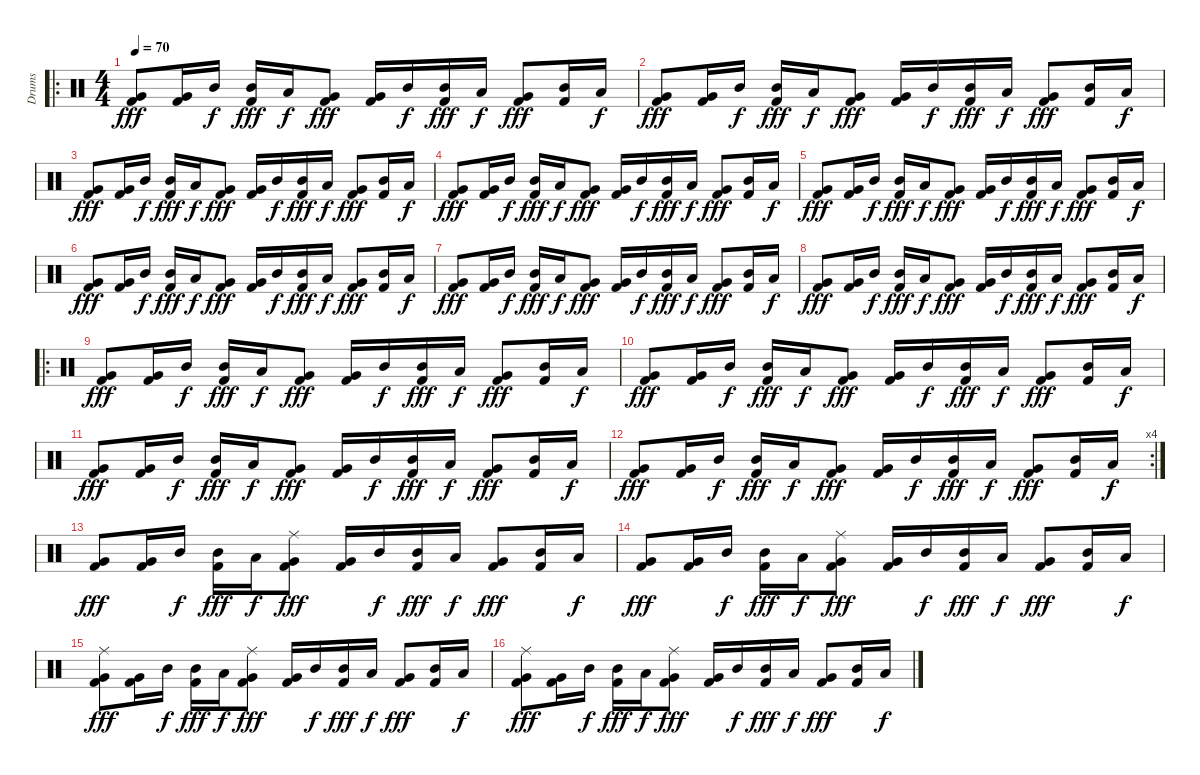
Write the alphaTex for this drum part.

\track ("Drums" "Drums") {instrument percussion}
\staff {score}
\articulation defaults
\ro
\ts (4 4)
\tempo 70
\clef neutral
\ks c
("Kick (hit) 2" "Very Low Tom (hit)").8{dy fff volume 0} ("Kick (hit) 2" "Very Low Tom (hit)").16{volume 7} "Mid Tom (hit)".16{dy f} ("Kick (hit) 2" "Mid Tom (hit)").16{dy fff} "Low Tom (hit)".16{dy f} ("Kick (hit) 2" "Very Low Tom (hit)").8{dy fff} ("Kick (hit) 2" "Very Low Tom (hit)").16 "Mid Tom (hit)".16{dy f} ("Kick (hit) 2" "Mid Tom (hit)").16{dy fff} "Low Tom (hit)".16{dy f} ("Kick (hit) 2" "Very Low Tom (hit)").8{dy fff} ("Kick (hit) 2" "Mid Tom (hit)").16 "Low Tom (hit)".16{dy f} |
("Kick (hit) 2" "Very Low Tom (hit)").8{dy fff} ("Kick (hit) 2" "Very Low Tom (hit)").16 "Mid Tom (hit)".16{dy f} ("Kick (hit) 2" "Mid Tom (hit)").16{dy fff} "Low Tom (hit)".16{dy f} ("Kick (hit) 2" "Very Low Tom (hit)").8{dy fff} ("Kick (hit) 2" "Very Low Tom (hit)").16 "Mid Tom (hit)".16{dy f} ("Kick (hit) 2" "Mid Tom (hit)").16{dy fff} "Low Tom (hit)".16{dy f} ("Kick (hit) 2" "Very Low Tom (hit)").8{dy fff} ("Kick (hit) 2" "Mid Tom (hit)").16 "Low Tom (hit)".16{dy f} |
("Kick (hit) 2" "Very Low Tom (hit)").8{dy fff} ("Kick (hit) 2" "Very Low Tom (hit)").16 "Mid Tom (hit)".16{dy f} ("Kick (hit) 2" "Mid Tom (hit)").16{dy fff} "Low Tom (hit)".16{dy f} ("Kick (hit) 2" "Very Low Tom (hit)").8{dy fff} ("Kick (hit) 2" "Very Low Tom (hit)").16 "Mid Tom (hit)".16{dy f} ("Kick (hit) 2" "Mid Tom (hit)").16{dy fff} "Low Tom (hit)".16{dy f} ("Kick (hit) 2" "Very Low Tom (hit)").8{dy fff} ("Kick (hit) 2" "Mid Tom (hit)").16 "Low Tom (hit)".16{dy f} |
("Kick (hit) 2" "Very Low Tom (hit)").8{dy fff} ("Kick (hit) 2" "Very Low Tom (hit)").16 "Mid Tom (hit)".16{dy f} ("Kick (hit) 2" "Mid Tom (hit)").16{dy fff} "Low Tom (hit)".16{dy f} ("Kick (hit) 2" "Very Low Tom (hit)").8{dy fff} ("Kick (hit) 2" "Very Low Tom (hit)").16 "Mid Tom (hit)".16{dy f} ("Kick (hit) 2" "Mid Tom (hit)").16{dy fff} "Low Tom (hit)".16{dy f} ("Kick (hit) 2" "Very Low Tom (hit)").8{dy fff} ("Kick (hit) 2" "Mid Tom (hit)").16 "Low Tom (hit)".16{dy f} |
("Kick (hit) 2" "Very Low Tom (hit)").8{dy fff} ("Kick (hit) 2" "Very Low Tom (hit)").16 "Mid Tom (hit)".16{dy f} ("Kick (hit) 2" "Mid Tom (hit)").16{dy fff} "Low Tom (hit)".16{dy f} ("Kick (hit) 2" "Very Low Tom (hit)").8{dy fff} ("Kick (hit) 2" "Very Low Tom (hit)").16 "Mid Tom (hit)".16{dy f} ("Kick (hit) 2" "Mid Tom (hit)").16{dy fff} "Low Tom (hit)".16{dy f} ("Kick (hit) 2" "Very Low Tom (hit)").8{dy fff} ("Kick (hit) 2" "Mid Tom (hit)").16 "Low Tom (hit)".16{dy f} |
("Kick (hit) 2" "Very Low Tom (hit)").8{dy fff} ("Kick (hit) 2" "Very Low Tom (hit)").16 "Mid Tom (hit)".16{dy f} ("Kick (hit) 2" "Mid Tom (hit)").16{dy fff} "Low Tom (hit)".16{dy f} ("Kick (hit) 2" "Very Low Tom (hit)").8{dy fff} ("Kick (hit) 2" "Very Low Tom (hit)").16 "Mid Tom (hit)".16{dy f} ("Kick (hit) 2" "Mid Tom (hit)").16{dy fff} "Low Tom (hit)".16{dy f} ("Kick (hit) 2" "Very Low Tom (hit)").8{dy fff} ("Kick (hit) 2" "Mid Tom (hit)").16 "Low Tom (hit)".16{dy f} |
("Kick (hit) 2" "Very Low Tom (hit)").8{dy fff} ("Kick (hit) 2" "Very Low Tom (hit)").16 "Mid Tom (hit)".16{dy f} ("Kick (hit) 2" "Mid Tom (hit)").16{dy fff} "Low Tom (hit)".16{dy f} ("Kick (hit) 2" "Very Low Tom (hit)").8{dy fff} ("Kick (hit) 2" "Very Low Tom (hit)").16 "Mid Tom (hit)".16{dy f} ("Kick (hit) 2" "Mid Tom (hit)").16{dy fff} "Low Tom (hit)".16{dy f} ("Kick (hit) 2" "Very Low Tom (hit)").8{dy fff} ("Kick (hit) 2" "Mid Tom (hit)").16 "Low Tom (hit)".16{dy f} |
("Kick (hit) 2" "Very Low Tom (hit)").8{dy fff} ("Kick (hit) 2" "Very Low Tom (hit)").16 "Mid Tom (hit)".16{dy f} ("Kick (hit) 2" "Mid Tom (hit)").16{dy fff} "Low Tom (hit)".16{dy f} ("Kick (hit) 2" "Very Low Tom (hit)").8{dy fff} ("Kick (hit) 2" "Very Low Tom (hit)").16 "Mid Tom (hit)".16{dy f} ("Kick (hit) 2" "Mid Tom (hit)").16{dy fff} "Low Tom (hit)".16{dy f} ("Kick (hit) 2" "Very Low Tom (hit)").8{dy fff} ("Kick (hit) 2" "Mid Tom (hit)").16 "Low Tom (hit)".16{dy f} |
\ro
("Kick (hit) 2" "Very Low Tom (hit)").8{dy fff volume 16} ("Kick (hit) 2" "Very Low Tom (hit)").16 "Mid Tom (hit)".16{dy f} ("Kick (hit) 2" "Mid Tom (hit)").16{dy fff} "Low Tom (hit)".16{dy f} ("Kick (hit) 2" "Very Low Tom (hit)").8{dy fff} ("Kick (hit) 2" "Very Low Tom (hit)").16 "Mid Tom (hit)".16{dy f} ("Kick (hit) 2" "Mid Tom (hit)").16{dy fff} "Low Tom (hit)".16{dy f} ("Kick (hit) 2" "Very Low Tom (hit)").8{dy fff} ("Kick (hit) 2" "Mid Tom (hit)").16 "Low Tom (hit)".16{dy f} |
("Kick (hit) 2" "Very Low Tom (hit)").8{dy fff} ("Kick (hit) 2" "Very Low Tom (hit)").16 "Mid Tom (hit)".16{dy f} ("Kick (hit) 2" "Mid Tom (hit)").16{dy fff} "Low Tom (hit)".16{dy f} ("Kick (hit) 2" "Very Low Tom (hit)").8{dy fff} ("Kick (hit) 2" "Very Low Tom (hit)").16 "Mid Tom (hit)".16{dy f} ("Kick (hit) 2" "Mid Tom (hit)").16{dy fff} "Low Tom (hit)".16{dy f} ("Kick (hit) 2" "Very Low Tom (hit)").8{dy fff} ("Kick (hit) 2" "Mid Tom (hit)").16 "Low Tom (hit)".16{dy f} |
("Kick (hit) 2" "Very Low Tom (hit)").8{dy fff} ("Kick (hit) 2" "Very Low Tom (hit)").16 "Mid Tom (hit)".16{dy f} ("Kick (hit) 2" "Mid Tom (hit)").16{dy fff} "Low Tom (hit)".16{dy f} ("Kick (hit) 2" "Very Low Tom (hit)").8{dy fff} ("Kick (hit) 2" "Very Low Tom (hit)").16 "Mid Tom (hit)".16{dy f} ("Kick (hit) 2" "Mid Tom (hit)").16{dy fff} "Low Tom (hit)".16{dy f} ("Kick (hit) 2" "Very Low Tom (hit)").8{dy fff} ("Kick (hit) 2" "Mid Tom (hit)").16 "Low Tom (hit)".16{dy f} |
\rc 4
("Kick (hit) 2" "Very Low Tom (hit)").8{dy fff} ("Kick (hit) 2" "Very Low Tom (hit)").16 "Mid Tom (hit)".16{dy f} ("Kick (hit) 2" "Mid Tom (hit)").16{dy fff} "Low Tom (hit)".16{dy f} ("Kick (hit) 2" "Very Low Tom (hit)").8{dy fff} ("Kick (hit) 2" "Very Low Tom (hit)").16 "Mid Tom (hit)".16{dy f} ("Kick (hit) 2" "Mid Tom (hit)").16{dy fff} "Low Tom (hit)".16{dy f} ("Kick (hit) 2" "Very Low Tom (hit)").8{dy fff} ("Kick (hit) 2" "Mid Tom (hit)").16 "Low Tom (hit)".16{dy f} |
("Kick (hit) 2" "Very Low Tom (hit)").8{dy fff} ("Kick (hit) 2" "Very Low Tom (hit)").16 "Mid Tom (hit)".16{dy f} ("Kick (hit) 2" "Mid Tom (hit)").16{dy fff} "Low Tom (hit)".16{dy f} ("Ride (middle)" "Kick (hit) 2" "Very Low Tom (hit)").8{dy fff} ("Kick (hit) 2" "Very Low Tom (hit)").16 "Mid Tom (hit)".16{dy f} ("Kick (hit) 2" "Mid Tom (hit)").16{dy fff} "Low Tom (hit)".16{dy f} ("Kick (hit) 2" "Very Low Tom (hit)").8{dy fff} ("Kick (hit) 2" "Mid Tom (hit)").16 "Low Tom (hit)".16{dy f} |
("Kick (hit) 2" "Very Low Tom (hit)").8{dy fff} ("Kick (hit) 2" "Very Low Tom (hit)").16 "Mid Tom (hit)".16{dy f} ("Kick (hit) 2" "Mid Tom (hit)").16{dy fff} "Low Tom (hit)".16{dy f} ("Ride (middle)" "Kick (hit) 2" "Very Low Tom (hit)").8{dy fff} ("Kick (hit) 2" "Very Low Tom (hit)").16 "Mid Tom (hit)".16{dy f} ("Kick (hit) 2" "Mid Tom (hit)").16{dy fff} "Low Tom (hit)".16{dy f} ("Kick (hit) 2" "Very Low Tom (hit)").8{dy fff} ("Kick (hit) 2" "Mid Tom (hit)").16 "Low Tom (hit)".16{dy f} |
("Ride (middle)" "Kick (hit) 2" "Very Low Tom (hit)").8{dy fff} ("Kick (hit) 2" "Very Low Tom (hit)").16 "Mid Tom (hit)".16{dy f} ("Kick (hit) 2" "Mid Tom (hit)").16{dy fff} "Low Tom (hit)".16{dy f} ("Ride (middle)" "Kick (hit) 2" "Very Low Tom (hit)").8{dy fff} ("Kick (hit) 2" "Very Low Tom (hit)").16 "Mid Tom (hit)".16{dy f} ("Kick (hit) 2" "Mid Tom (hit)").16{dy fff} "Low Tom (hit)".16{dy f} ("Kick (hit) 2" "Very Low Tom (hit)").8{dy fff} ("Kick (hit) 2" "Mid Tom (hit)").16 "Low Tom (hit)".16{dy f} |
("Ride (middle)" "Kick (hit) 2" "Very Low Tom (hit)").8{dy fff} ("Kick (hit) 2" "Very Low Tom (hit)").16 "Mid Tom (hit)".16{dy f} ("Kick (hit) 2" "Mid Tom (hit)").16{dy fff} "Low Tom (hit)".16{dy f} ("Ride (middle)" "Kick (hit) 2" "Very Low Tom (hit)").8{dy fff} ("Kick (hit) 2" "Very Low Tom (hit)").16 "Mid Tom (hit)".16{dy f} ("Kick (hit) 2" "Mid Tom (hit)").16{dy fff} "Low Tom (hit)".16{dy f} ("Kick (hit) 2" "Very Low Tom (hit)").8{dy fff} ("Kick (hit) 2" "Mid Tom (hit)").16 "Low Tom (hit)".16{dy f}
